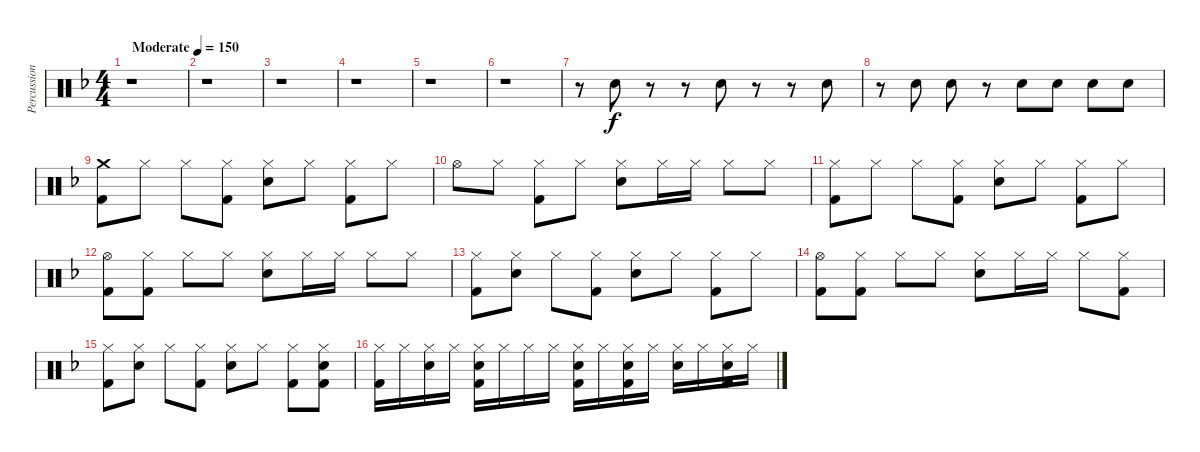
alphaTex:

\track ("Percussion" "Percussion") {instrument percussion}
\staff {score}
\articulation defaults
\ts (4 4)
\tempo (150 "Moderate")
\clef neutral
\ks f
r.1{dy f} |
r.1 |
r.1 |
r.1 |
r.1 |
r.1 |
r.8 "Electric Snare (hit)".8 r.8 r.8 "Electric Snare (hit)".8 r.8 r.8 "Electric Snare (hit)".8 |
r.8 "Electric Snare (hit)".8 "Electric Snare (hit)".8 r.8 "Electric Snare (hit)".8 "Electric Snare (hit)".8 "Electric Snare (hit)".8 "Electric Snare (hit)".8 |
("Crash medium (hit)" "Kick (hit) 2").8 "Hi-Hat (closed)".8 "Hi-Hat (closed)".8 ("Hi-Hat (closed)" "Kick (hit) 2").8 ("Hi-Hat (closed)" "Electric Snare (hit)").8 "Hi-Hat (closed)".8 ("Hi-Hat (closed)" "Kick (hit) 2").8 "Hi-Hat (closed)".8 |
"Hi-Hat (open)".8 "Hi-Hat (closed)".8 ("Hi-Hat (closed)" "Kick (hit) 2").8 "Hi-Hat (closed)".8 ("Hi-Hat (closed)" "Electric Snare (hit)").8 "Hi-Hat (closed)".16 "Hi-Hat (closed)".16 "Hi-Hat (closed)".8 "Hi-Hat (closed)".8 |
("Hi-Hat (closed)" "Kick (hit) 2").8 "Hi-Hat (closed)".8 "Hi-Hat (closed)".8 ("Hi-Hat (closed)" "Kick (hit) 2").8 ("Hi-Hat (closed)" "Electric Snare (hit)").8 "Hi-Hat (closed)".8 ("Hi-Hat (closed)" "Kick (hit) 2").8 "Hi-Hat (closed)".8 |
("Hi-Hat (open)" "Kick (hit) 2").8 ("Hi-Hat (closed)" "Kick (hit) 2").8 "Hi-Hat (closed)".8 "Hi-Hat (closed)".8 ("Hi-Hat (closed)" "Electric Snare (hit)").8 "Hi-Hat (closed)".16 "Hi-Hat (closed)".16 "Hi-Hat (closed)".8 "Hi-Hat (closed)".8 |
("Hi-Hat (closed)" "Kick (hit) 2").8 ("Hi-Hat (closed)" "Electric Snare (hit)").8 "Hi-Hat (closed)".8 ("Hi-Hat (closed)" "Kick (hit) 2").8 ("Hi-Hat (closed)" "Electric Snare (hit)").8 "Hi-Hat (closed)".8 ("Hi-Hat (closed)" "Kick (hit) 2").8 "Hi-Hat (closed)".8 |
("Hi-Hat (open)" "Kick (hit) 2").8 ("Hi-Hat (closed)" "Kick (hit) 2").8 "Hi-Hat (closed)".8 "Hi-Hat (closed)".8 ("Hi-Hat (closed)" "Electric Snare (hit)").8 "Hi-Hat (closed)".16 "Hi-Hat (closed)".16 "Hi-Hat (closed)".8 ("Hi-Hat (closed)" "Kick (hit) 2").8 |
("Hi-Hat (closed)" "Kick (hit) 2").8 ("Hi-Hat (closed)" "Electric Snare (hit)").8 "Hi-Hat (closed)".8 ("Hi-Hat (closed)" "Kick (hit) 2").8 ("Hi-Hat (closed)" "Electric Snare (hit)").8 "Hi-Hat (closed)".8 ("Hi-Hat (closed)" "Kick (hit) 2").8 ("Hi-Hat (closed)" "Electric Snare (hit)" "Kick (hit) 2").8 |
("Hi-Hat (closed)" "Kick (hit) 2").16 "Hi-Hat (closed)".16 ("Hi-Hat (closed)" "Electric Snare (hit)").16 "Hi-Hat (closed)".16 ("Hi-Hat (closed)" "Electric Snare (hit)" "Kick (hit) 2").16 "Hi-Hat (closed)".16 "Hi-Hat (closed)".16 "Hi-Hat (closed)".16 ("Hi-Hat (closed)" "Electric Snare (hit)" "Kick (hit) 2").16 "Hi-Hat (closed)".16 ("Hi-Hat (closed)" "Electric Snare (hit)" "Kick (hit) 2").16 "Hi-Hat (closed)".16 ("Hi-Hat (closed)" "Electric Snare (hit)").16 "Hi-Hat (closed)".16 ("Hi-Hat (closed)" "Electric Snare (hit)" "Kick (hit) 2").16 "Hi-Hat (closed)".16
